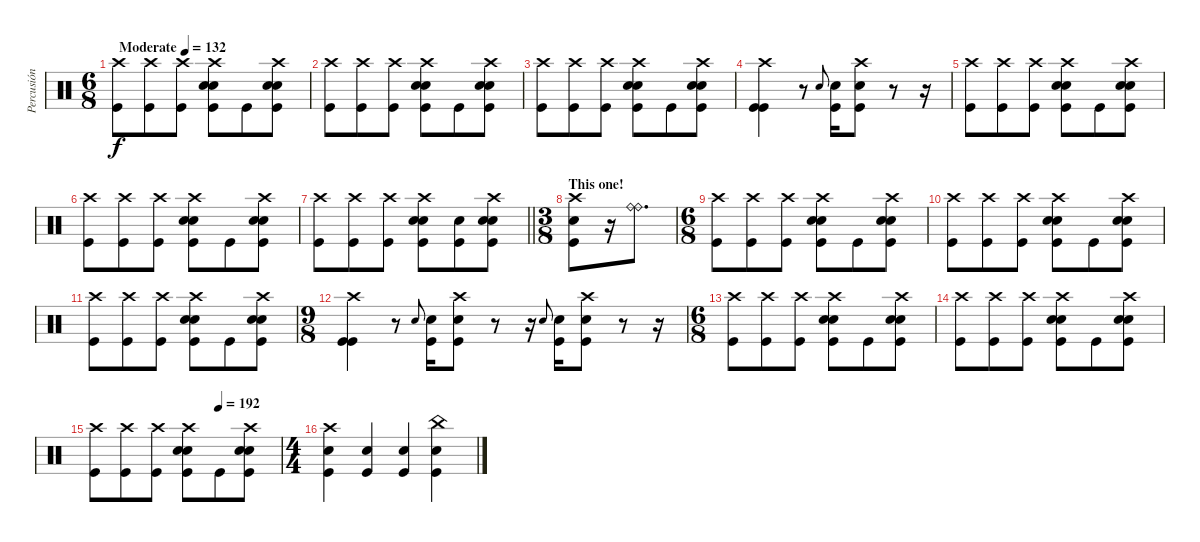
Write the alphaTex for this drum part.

\track ("Percusión" "Percusión") {instrument percussion}
\staff {score}
\articulation defaults
\ts (6 8)
\tempo (132 "Moderate")
\clef neutral
\ks c
("Crash high (hit)" "Kick (hit)").8{dy f} ("Crash high (hit)" "Kick (hit)").8 ("Crash high (hit)" "Kick (hit)").8 ("Electric Snare (hit)" "Kick (hit)" "Crash high (hit)" "Electric Snare (hit)").8 "Kick (hit)".8 ("Electric Snare (hit)" "Kick (hit)" "Crash high (hit)" "Electric Snare (hit)").8 |
("Crash high (hit)" "Kick (hit)").8 ("Crash high (hit)" "Kick (hit)").8 ("Crash high (hit)" "Kick (hit)").8 ("Electric Snare (hit)" "Kick (hit)" "Crash high (hit)" "Electric Snare (hit)").8 "Kick (hit)".8 ("Electric Snare (hit)" "Kick (hit)" "Crash high (hit)" "Electric Snare (hit)").8 |
("Crash high (hit)" "Kick (hit)").8 ("Crash high (hit)" "Kick (hit)").8 ("Crash high (hit)" "Kick (hit)").8 ("Electric Snare (hit)" "Kick (hit)" "Crash high (hit)" "Electric Snare (hit)").8 "Kick (hit)".8 ("Electric Snare (hit)" "Kick (hit)" "Crash high (hit)" "Electric Snare (hit)").8 |
("Crash high (hit)" "Kick (hit)" "Kick (hit)").4 r.8 "Electric Snare (hit)".8{gr onbeat} ("Electric Snare (hit)" "Kick (hit)").16 ("Electric Snare (hit)" "Kick (hit)" "Crash high (hit)").8 r.8 r.16 |
("Crash high (hit)" "Kick (hit)").8 ("Crash high (hit)" "Kick (hit)").8 ("Crash high (hit)" "Kick (hit)").8 ("Electric Snare (hit)" "Kick (hit)" "Crash high (hit)" "Electric Snare (hit)").8 "Kick (hit)".8 ("Electric Snare (hit)" "Kick (hit)" "Crash high (hit)" "Electric Snare (hit)").8 |
("Crash high (hit)" "Kick (hit)").8 ("Crash high (hit)" "Kick (hit)").8 ("Crash high (hit)" "Kick (hit)").8 ("Electric Snare (hit)" "Kick (hit)" "Crash high (hit)" "Electric Snare (hit)").8 "Kick (hit)".8 ("Electric Snare (hit)" "Kick (hit)" "Crash high (hit)" "Electric Snare (hit)").8 |
\barLineRight lightlight
("Crash high (hit)" "Kick (hit)").8 ("Crash high (hit)" "Kick (hit)").8 ("Crash high (hit)" "Kick (hit)").8 ("Electric Snare (hit)" "Kick (hit)" "Crash high (hit)" "Electric Snare (hit)").8 ("Electric Snare (hit)" "Kick (hit)").8 ("Electric Snare (hit)" "Kick (hit)" "Crash high (hit)" "Electric Snare (hit)").8 |
\ts (3 8)
\section ("" "This one!")
("Crash high (hit)" "Kick (hit)" "Electric Snare (hit)").8 r.16 ("Ride (bell)" "Ride (bell)").8{d} |
\ts (6 8)
("Crash high (hit)" "Kick (hit)").8 ("Crash high (hit)" "Kick (hit)").8 ("Crash high (hit)" "Kick (hit)").8 ("Electric Snare (hit)" "Kick (hit)" "Crash high (hit)" "Electric Snare (hit)").8 "Kick (hit)".8 ("Electric Snare (hit)" "Kick (hit)" "Crash high (hit)" "Electric Snare (hit)").8 |
("Crash high (hit)" "Kick (hit)").8 ("Crash high (hit)" "Kick (hit)").8 ("Crash high (hit)" "Kick (hit)").8 ("Electric Snare (hit)" "Kick (hit)" "Crash high (hit)" "Electric Snare (hit)").8 "Kick (hit)".8 ("Electric Snare (hit)" "Kick (hit)" "Crash high (hit)" "Electric Snare (hit)").8 |
("Crash high (hit)" "Kick (hit)").8 ("Crash high (hit)" "Kick (hit)").8 ("Crash high (hit)" "Kick (hit)").8 ("Electric Snare (hit)" "Kick (hit)" "Crash high (hit)" "Electric Snare (hit)").8 "Kick (hit)".8 ("Electric Snare (hit)" "Kick (hit)" "Crash high (hit)" "Electric Snare (hit)").8 |
\ts (9 8)
("Crash high (hit)" "Kick (hit)" "Kick (hit)").4 r.8 "Electric Snare (hit)".8{gr onbeat} ("Electric Snare (hit)" "Kick (hit)").16 ("Electric Snare (hit)" "Kick (hit)" "Crash high (hit)").8 r.8 r.16 "Electric Snare (hit)".8{gr onbeat} ("Electric Snare (hit)" "Kick (hit)").16 ("Electric Snare (hit)" "Kick (hit)" "Crash high (hit)").8 r.8 r.16 |
\ts (6 8)
("Crash high (hit)" "Kick (hit)").8 ("Crash high (hit)" "Kick (hit)").8 ("Crash high (hit)" "Kick (hit)").8 ("Electric Snare (hit)" "Kick (hit)" "Crash high (hit)" "Electric Snare (hit)").8 "Kick (hit)".8 ("Electric Snare (hit)" "Kick (hit)" "Crash high (hit)" "Electric Snare (hit)").8 |
("Crash high (hit)" "Kick (hit)").8 ("Crash high (hit)" "Kick (hit)").8 ("Crash high (hit)" "Kick (hit)").8 ("Electric Snare (hit)" "Kick (hit)" "Crash high (hit)" "Electric Snare (hit)").8 "Kick (hit)".8 ("Electric Snare (hit)" "Kick (hit)" "Crash high (hit)" "Electric Snare (hit)").8 |
\tempo (192 0.6666666666666666)
("Crash high (hit)" "Kick (hit)").8 ("Crash high (hit)" "Kick (hit)").8 ("Crash high (hit)" "Kick (hit)").8 ("Electric Snare (hit)" "Kick (hit)" "Crash high (hit)" "Electric Snare (hit)").8 "Kick (hit)".8 ("Electric Snare (hit)" "Kick (hit)" "Crash high (hit)" "Electric Snare (hit)").8 |
\ts (4 4)
("Crash high (hit)" "Kick (hit)" "Electric Snare (hit)").4 ("Kick (hit)" "Electric Snare (hit)").4 ("Kick (hit)" "Electric Snare (hit)").4 ("China (hit)" "Kick (hit)" "Electric Snare (hit)").4
